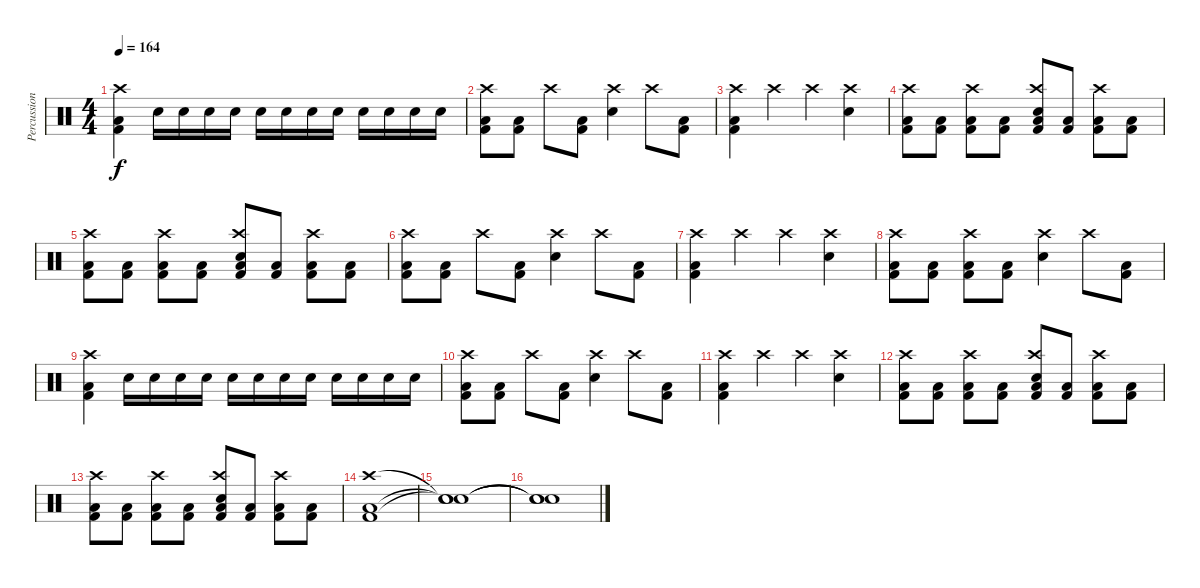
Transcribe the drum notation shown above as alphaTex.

\track ("Percussions" "Percussion") {instrument percussion}
\staff {score}
\articulation defaults
\ts (4 4)
\tempo 164
\clef neutral
\ks c
("Kick (hit) 2" "Low Floor Tom (hit)" "Crash high (hit)").4{dy f} "Electric Snare (hit)".16 "Electric Snare (hit)".16 "Electric Snare (hit)".16 "Electric Snare (hit)".16 "Electric Snare (hit)".16 "Electric Snare (hit)".16 "Snare (hit) 2".16 "Snare (hit) 2".16 "Snare (hit) 2".16 "Snare (hit) 2".16 "Snare (hit) 2".16 "Snare (hit) 2".16 |
("Kick (hit) 2" "Low Floor Tom (hit)" "Crash high (hit)").8 ("Kick (hit) 2" "Low Floor Tom (hit)").8 "Crash high (hit)".8 ("Kick (hit) 2" "Low Floor Tom (hit)").8 ("Electric Snare (hit)" "Crash high (hit)").4 "Crash high (hit)".8 ("Kick (hit) 2" "Low Floor Tom (hit)").8 |
("Kick (hit) 2" "Low Floor Tom (hit)" "Crash high (hit)").4 "Crash high (hit)".4 "Crash high (hit)".4 ("Electric Snare (hit)" "Crash high (hit)").4 |
("Kick (hit) 2" "Low Floor Tom (hit)" "Crash high (hit)").8 ("Kick (hit) 2" "Low Floor Tom (hit)").8 ("Kick (hit) 2" "Low Floor Tom (hit)" "Crash high (hit)").8 ("Kick (hit) 2" "Low Floor Tom (hit)").8 ("Kick (hit) 2" "Low Floor Tom (hit)" "Electric Snare (hit)" "Crash high (hit)").8 ("Kick (hit) 2" "Low Floor Tom (hit)").8 ("Kick (hit) 2" "Low Floor Tom (hit)" "Crash high (hit)").8 ("Kick (hit) 2" "Low Floor Tom (hit)").8 |
("Kick (hit) 2" "Low Floor Tom (hit)" "Crash high (hit)").8 ("Kick (hit) 2" "Low Floor Tom (hit)").8 ("Kick (hit) 2" "Low Floor Tom (hit)" "Crash high (hit)").8 ("Kick (hit) 2" "Low Floor Tom (hit)").8 ("Kick (hit) 2" "Low Floor Tom (hit)" "Electric Snare (hit)" "Crash high (hit)").8 ("Kick (hit) 2" "Low Floor Tom (hit)").8 ("Kick (hit) 2" "Low Floor Tom (hit)" "Crash high (hit)").8 ("Kick (hit) 2" "Low Floor Tom (hit)").8 |
("Kick (hit) 2" "Low Floor Tom (hit)" "Crash high (hit)").8 ("Kick (hit) 2" "Low Floor Tom (hit)").8 "Crash high (hit)".8 ("Kick (hit) 2" "Low Floor Tom (hit)").8 ("Electric Snare (hit)" "Crash high (hit)").4 "Crash high (hit)".8 ("Kick (hit) 2" "Low Floor Tom (hit)").8 |
("Kick (hit) 2" "Low Floor Tom (hit)" "Crash high (hit)").4 "Crash high (hit)".4 "Crash high (hit)".4 ("Electric Snare (hit)" "Crash high (hit)").4 |
("Kick (hit) 2" "Low Floor Tom (hit)" "Crash high (hit)").8 ("Kick (hit) 2" "Low Floor Tom (hit)").8 ("Kick (hit) 2" "Low Floor Tom (hit)" "Crash high (hit)").8 ("Kick (hit) 2" "Low Floor Tom (hit)").8 ("Electric Snare (hit)" "Crash high (hit)").4 "Crash high (hit)".8 ("Kick (hit) 2" "Low Floor Tom (hit)").8 |
("Kick (hit) 2" "Low Floor Tom (hit)" "Crash high (hit)").4 "Electric Snare (hit)".16 "Electric Snare (hit)".16 "Electric Snare (hit)".16 "Electric Snare (hit)".16 "Electric Snare (hit)".16 "Electric Snare (hit)".16 "Snare (hit) 2".16 "Snare (hit) 2".16 "Snare (hit) 2".16 "Snare (hit) 2".16 "Snare (hit) 2".16 "Snare (hit) 2".16 |
("Kick (hit) 2" "Low Floor Tom (hit)" "Crash high (hit)").8 ("Kick (hit) 2" "Low Floor Tom (hit)").8 "Crash high (hit)".8 ("Kick (hit) 2" "Low Floor Tom (hit)").8 ("Electric Snare (hit)" "Crash high (hit)").4 "Crash high (hit)".8 ("Kick (hit) 2" "Low Floor Tom (hit)").8 |
("Kick (hit) 2" "Low Floor Tom (hit)" "Crash high (hit)").4 "Crash high (hit)".4 "Crash high (hit)".4 ("Electric Snare (hit)" "Crash high (hit)").4 |
("Kick (hit) 2" "Low Floor Tom (hit)" "Crash high (hit)").8 ("Kick (hit) 2" "Low Floor Tom (hit)").8 ("Kick (hit) 2" "Low Floor Tom (hit)" "Crash high (hit)").8 ("Kick (hit) 2" "Low Floor Tom (hit)").8 ("Kick (hit) 2" "Low Floor Tom (hit)" "Electric Snare (hit)" "Crash high (hit)").8 ("Kick (hit) 2" "Low Floor Tom (hit)").8 ("Kick (hit) 2" "Low Floor Tom (hit)" "Crash high (hit)").8 ("Kick (hit) 2" "Low Floor Tom (hit)").8 |
("Kick (hit) 2" "Low Floor Tom (hit)" "Crash high (hit)").8 ("Kick (hit) 2" "Low Floor Tom (hit)").8 ("Kick (hit) 2" "Low Floor Tom (hit)" "Crash high (hit)").8 ("Kick (hit) 2" "Low Floor Tom (hit)").8 ("Kick (hit) 2" "Low Floor Tom (hit)" "Electric Snare (hit)" "Crash high (hit)").8 ("Kick (hit) 2" "Low Floor Tom (hit)").8 ("Kick (hit) 2" "Low Floor Tom (hit)" "Crash high (hit)").8 ("Kick (hit) 2" "Low Floor Tom (hit)").8 |
("Kick (hit) 2" "Low Floor Tom (hit)" "Crash high (hit)").1 |
("Snare (hit)"{t} "Snare (hit)"{t} "Snare (hit)"{t}).1 |
("Snare (hit)"{t} "Snare (hit)"{t} "Snare (hit)"{t}).1
